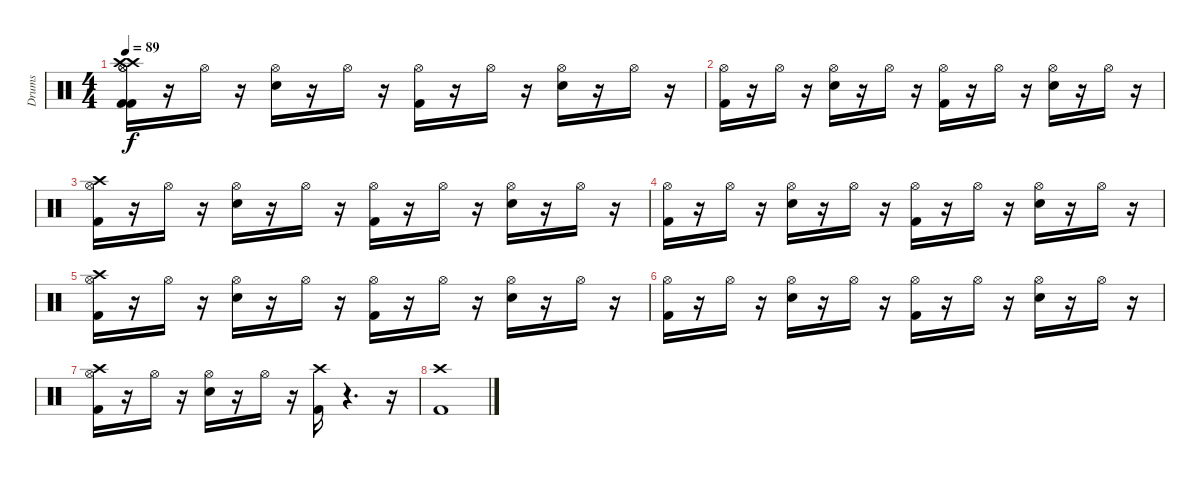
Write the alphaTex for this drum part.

\track ("Drums " "Drums ") {instrument percussion}
\staff {score}
\articulation defaults
\ts (4 4)
\tempo 89
\clef neutral
\ks c
("Kick (hit) 2" "Hi-Hat (open)" "Crash high (hit)" "Kick (hit) 2" "Crash high (hit)" "Hi-Hat (open)").16{dy f} r.16 "Hi-Hat (open)".16 r.16 ("Snare (hit) 2" "Hi-Hat (open)").16 r.16 "Hi-Hat (open)".16 r.16 ("Kick (hit) 2" "Hi-Hat (open)").16 r.16 "Hi-Hat (open)".16 r.16 ("Snare (hit) 2" "Hi-Hat (open)").16 r.16 "Hi-Hat (open)".16 r.16 |
("Kick (hit) 2" "Hi-Hat (open)").16 r.16 "Hi-Hat (open)".16 r.16 ("Snare (hit) 2" "Hi-Hat (open)").16 r.16 "Hi-Hat (open)".16 r.16 ("Kick (hit) 2" "Hi-Hat (open)").16 r.16 "Hi-Hat (open)".16 r.16 ("Snare (hit) 2" "Hi-Hat (open)").16 r.16 "Hi-Hat (open)".16 r.16 |
("Kick (hit) 2" "Crash high (hit)" "Hi-Hat (open)").16 r.16 "Hi-Hat (open)".16 r.16 ("Snare (hit) 2" "Hi-Hat (open)").16 r.16 "Hi-Hat (open)".16 r.16 ("Kick (hit) 2" "Hi-Hat (open)").16 r.16 "Hi-Hat (open)".16 r.16 ("Snare (hit) 2" "Hi-Hat (open)").16 r.16 "Hi-Hat (open)".16 r.16 |
("Kick (hit) 2" "Hi-Hat (open)").16 r.16 "Hi-Hat (open)".16 r.16 ("Snare (hit) 2" "Hi-Hat (open)").16 r.16 "Hi-Hat (open)".16 r.16 ("Kick (hit) 2" "Hi-Hat (open)").16 r.16 "Hi-Hat (open)".16 r.16 ("Snare (hit) 2" "Hi-Hat (open)").16 r.16 "Hi-Hat (open)".16 r.16 |
("Kick (hit) 2" "Crash high (hit)" "Hi-Hat (open)").16 r.16 "Hi-Hat (open)".16 r.16 ("Snare (hit) 2" "Hi-Hat (open)").16 r.16 "Hi-Hat (open)".16 r.16 ("Kick (hit) 2" "Hi-Hat (open)").16 r.16 "Hi-Hat (open)".16 r.16 ("Snare (hit) 2" "Hi-Hat (open)").16 r.16 "Hi-Hat (open)".16 r.16 |
("Kick (hit) 2" "Hi-Hat (open)").16 r.16 "Hi-Hat (open)".16 r.16 ("Snare (hit) 2" "Hi-Hat (open)").16 r.16 "Hi-Hat (open)".16 r.16 ("Kick (hit) 2" "Hi-Hat (open)").16 r.16 "Hi-Hat (open)".16 r.16 ("Snare (hit) 2" "Hi-Hat (open)").16 r.16 "Hi-Hat (open)".16 r.16 |
("Kick (hit) 2" "Crash high (hit)" "Hi-Hat (open)").16 r.16 "Hi-Hat (open)".16 r.16 ("Snare (hit) 2" "Hi-Hat (open)").16 r.16 "Hi-Hat (open)".16 r.16 ("Kick (hit) 2" "Crash high (hit)").16 r.4{d} r.16 |
("Kick (hit) 2" "Crash high (hit)").1
